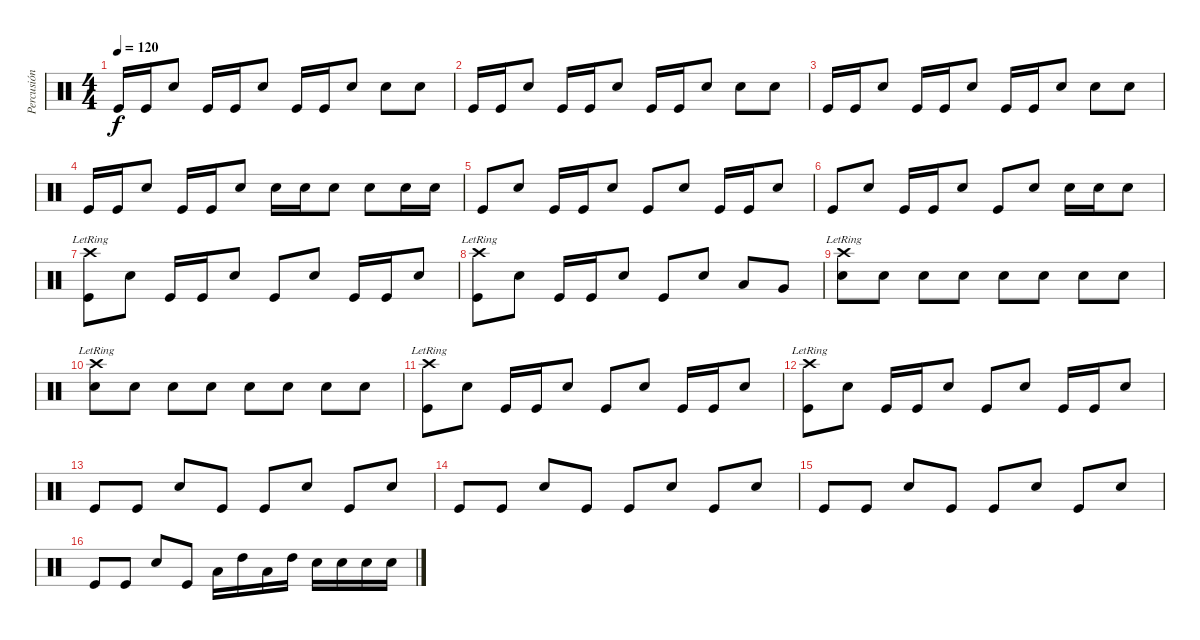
\track ("Percusión" "Percusión") {instrument percussion}
\staff {score}
\articulation defaults
\ts (4 4)
\tempo 120
\clef neutral
\ks c "Kick (hit)".16{dy f} "Kick (hit)".16 "Electric Snare (hit)".8 "Kick (hit)".16 "Kick (hit)".16 "Electric Snare (hit)".8 "Kick (hit)".16 "Kick (hit)".16 "Electric Snare (hit)".8 "Electric Snare (hit)".8 "Electric Snare (hit)".8
|
"Kick (hit)".16 "Kick (hit)".16 "Electric Snare (hit)".8 "Kick (hit)".16 "Kick (hit)".16 "Electric Snare (hit)".8 "Kick (hit)".16 "Kick (hit)".16 "Electric Snare (hit)".8 "Electric Snare (hit)".8 "Electric Snare (hit)".8 |
"Kick (hit)".16 "Kick (hit)".16 "Electric Snare (hit)".8 "Kick (hit)".16 "Kick (hit)".16 "Electric Snare (hit)".8 "Kick (hit)".16 "Kick (hit)".16 "Electric Snare (hit)".8 "Electric Snare (hit)".8 "Electric Snare (hit)".8 |
"Kick (hit)".16 "Kick (hit)".16 "Electric Snare (hit)".8 "Kick (hit)".16 "Kick (hit)".16 "Electric Snare (hit)".8 "Electric Snare (hit)".16 "Electric Snare (hit)".16 "Electric Snare (hit)".8 "Electric Snare (hit)".8 "Electric Snare (hit)".16 "Electric Snare (hit)".16 |
"Kick (hit)".8 "Electric Snare (hit)".8 "Kick (hit)".16 "Kick (hit)".16 "Electric Snare (hit)".8 "Kick (hit)".8 "Electric Snare (hit)".8 "Kick (hit)".16 "Kick (hit)".16 "Electric Snare (hit)".8 |
"Kick (hit)".8 "Electric Snare (hit)".8 "Kick (hit)".16 "Kick (hit)".16 "Electric Snare (hit)".8 "Kick (hit)".8 "Electric Snare (hit)".8 "Electric Snare (hit)".16 "Electric Snare (hit)".16 "Electric Snare (hit)".8 |
("Kick (hit)" "Crash high (hit)"{lr}).8 "Electric Snare (hit)".8 "Kick (hit)".16 "Kick (hit)".16 "Electric Snare (hit)".8 "Kick (hit)".8 "Electric Snare (hit)".8 "Kick (hit)".16 "Kick (hit)".16 "Electric Snare (hit)".8 |
("Kick (hit)" "Crash high (hit)"{lr}).8 "Electric Snare (hit)".8 "Kick (hit)".16 "Kick (hit)".16 "Electric Snare (hit)".8 "Kick (hit)".8 "Electric Snare (hit)".8 "Low Floor Tom (hit)".8 "Very Low Tom (hit)".8 |
("Electric Snare (hit)" "Crash high (hit)"{lr}).8 "Electric Snare (hit)".8 "Electric Snare (hit)".8 "Electric Snare (hit)".8 "Electric Snare (hit)".8 "Electric Snare (hit)".8 "Electric Snare (hit)".8 "Electric Snare (hit)".8 |
("Electric Snare (hit)" "Crash high (hit)"{lr}).8 "Electric Snare (hit)".8 "Electric Snare (hit)".8 "Electric Snare (hit)".8 "Electric Snare (hit)".8 "Electric Snare (hit)".8 "Electric Snare (hit)".8 "Electric Snare (hit)".8 |
("Kick (hit)" "Crash high (hit)"{lr}).8 "Electric Snare (hit)".8 "Kick (hit)".16 "Kick (hit)".16 "Electric Snare (hit)".8 "Kick (hit)".8 "Electric Snare (hit)".8 "Kick (hit)".16 "Kick (hit)".16 "Electric Snare (hit)".8 |
("Kick (hit)" "Crash high (hit)"{lr}).8 "Electric Snare (hit)".8 "Kick (hit)".16 "Kick (hit)".16 "Electric Snare (hit)".8 "Kick (hit)".8 "Electric Snare (hit)".8 "Kick (hit)".16 "Kick (hit)".16 "Electric Snare (hit)".8 |
"Kick (hit)".8 "Kick (hit)".8 "Electric Snare (hit)".8 "Kick (hit)".8 "Kick (hit)".8 "Electric Snare (hit)".8 "Kick (hit)".8 "Electric Snare (hit)".8 |
"Kick (hit)".8 "Kick (hit)".8 "Electric Snare (hit)".8 "Kick (hit)".8 "Kick (hit)".8 "Electric Snare (hit)".8 "Kick (hit)".8 "Electric Snare (hit)".8 |
"Kick (hit)".8 "Kick (hit)".8 "Electric Snare (hit)".8 "Kick (hit)".8 "Kick (hit)".8 "Electric Snare (hit)".8 "Kick (hit)".8 "Electric Snare (hit)".8 |
"Kick (hit)".8 "Kick (hit)".8 "Electric Snare (hit)".8 "Kick (hit)".8 "Low Tom (hit)".16 "High Tom (hit)".16 "Low Tom (hit)".16 "High Tom (hit)".16 "Electric Snare (hit)".16 "Electric Snare (hit)".16 "Electric Snare (hit)".16 "Electric Snare (hit)".16
